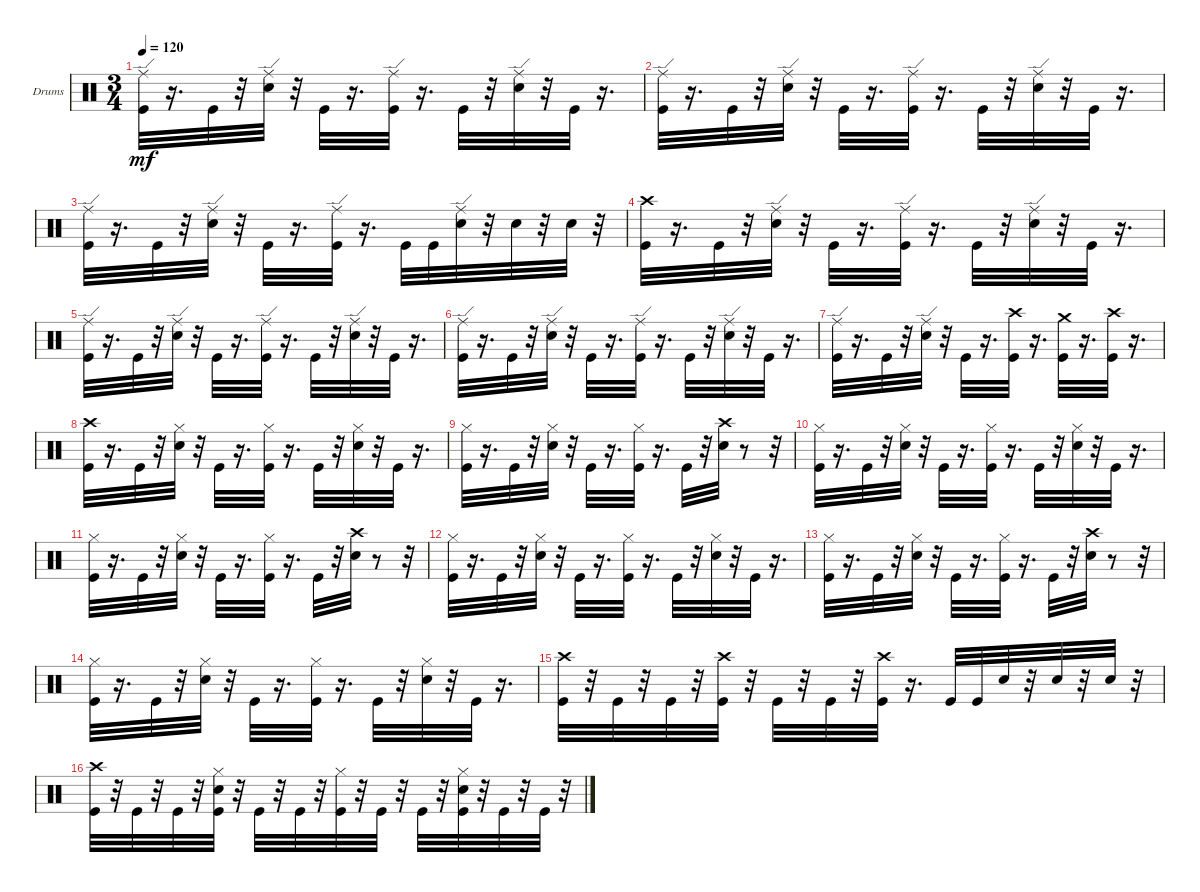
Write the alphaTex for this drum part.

\bracketExtendMode groupsimilarinstruments
\firstSystemTrackNameOrientation horizontal
\otherSystemsTrackNameOrientation horizontal
\track ("" "Drums") {instrument percussion}
\staff {score}
\articulation defaults
\ts (3 4)
\tempo 120
\clef neutral
\ks c
("Ride (edge)" "Kick (hit)").32{dy mf} r.16{d} "Kick (hit)".32 r.32 ("Snare (hit) 2" "Ride (edge)").32 r.32 "Kick (hit)".32 r.16{d} ("Kick (hit)" "Ride (edge)").32 r.16{d} "Kick (hit)".32 r.32 ("Snare (hit) 2" "Ride (edge)").32 r.32 "Kick (hit)".32 r.16{d} |
("Ride (edge)" "Kick (hit)").32 r.16{d} "Kick (hit)".32 r.32 ("Snare (hit) 2" "Ride (edge)").32 r.32 "Kick (hit)".32 r.16{d} ("Kick (hit)" "Ride (edge)").32 r.16{d} "Kick (hit)".32 r.32 ("Snare (hit) 2" "Ride (edge)").32 r.32 "Kick (hit)".32 r.16{d} |
("Ride (edge)" "Kick (hit)").32 r.16{d} "Kick (hit)".32 r.32 ("Snare (hit) 2" "Ride (edge)").32 r.32 "Kick (hit)".32 r.16{d} ("Kick (hit)" "Ride (edge)").32 r.16{d} "Kick (hit)".32 "Kick (hit)".32 ("Snare (hit) 2" "Ride (edge)").32 r.32 "Snare (hit) 2".32 r.32 "Snare (hit) 2".32 r.32 |
("Crash high (hit)" "Kick (hit)").32 r.16{d} "Kick (hit)".32 r.32 ("Snare (hit) 2" "Ride (edge)").32 r.32 "Kick (hit)".32 r.16{d} ("Kick (hit)" "Ride (edge)").32 r.16{d} "Kick (hit)".32 r.32 ("Snare (hit) 2" "Ride (edge)").32 r.32 "Kick (hit)".32 r.16{d} |
("Ride (edge)" "Kick (hit)").32 r.16{d} "Kick (hit)".32 r.32 ("Snare (hit) 2" "Ride (edge)").32 r.32 "Kick (hit)".32 r.16{d} ("Kick (hit)" "Ride (edge)").32 r.16{d} "Kick (hit)".32 r.32 ("Snare (hit) 2" "Ride (edge)").32 r.32 "Kick (hit)".32 r.16{d} |
("Ride (edge)" "Kick (hit)").32 r.16{d} "Kick (hit)".32 r.32 ("Snare (hit) 2" "Ride (edge)").32 r.32 "Kick (hit)".32 r.16{d} ("Kick (hit)" "Ride (edge)").32 r.16{d} "Kick (hit)".32 r.32 ("Snare (hit) 2" "Ride (edge)").32 r.32 "Kick (hit)".32 r.16{d} |
("Ride (edge)" "Kick (hit)").32 r.16{d} "Kick (hit)".32 r.32 ("Snare (hit) 2" "Ride (edge)").32 r.32 "Kick (hit)".32 r.16{d} ("Crash high (hit)" "Kick (hit)").32 r.16{d} ("Crash medium (hit)" "Kick (hit)").32 r.16{d} ("Crash high (hit)" "Kick (hit)").32 r.16{d} |
("Crash high (hit)" "Kick (hit)").32 r.16{d} "Kick (hit)".32 r.32 ("Snare (hit) 2" "Hi-Hat (closed)").32 r.32 "Kick (hit)".32 r.16{d} ("Hi-Hat (closed)" "Kick (hit)").32 r.16{d} "Kick (hit)".32 r.32 ("Hi-Hat (closed)" "Snare (hit) 2").32 r.32 "Kick (hit)".32 r.16{d} |
("Hi-Hat (closed)" "Kick (hit)").32 r.16{d} "Kick (hit)".32 r.32 ("Snare (hit) 2" "Hi-Hat (closed)").32 r.32 "Kick (hit)".32 r.16{d} ("Hi-Hat (closed)" "Kick (hit)").32 r.16{d} "Kick (hit)".32 r.32 ("Crash high (hit)" "Snare (hit) 2").32 r.8 r.32 |
("Hi-Hat (closed)" "Kick (hit)").32 r.16{d} "Kick (hit)".32 r.32 ("Snare (hit) 2" "Hi-Hat (closed)").32 r.32 "Kick (hit)".32 r.16{d} ("Hi-Hat (closed)" "Kick (hit)").32 r.16{d} "Kick (hit)".32 r.32 ("Hi-Hat (closed)" "Snare (hit) 2").32 r.32 "Kick (hit)".32 r.16{d} |
("Hi-Hat (closed)" "Kick (hit)").32 r.16{d} "Kick (hit)".32 r.32 ("Snare (hit) 2" "Hi-Hat (closed)").32 r.32 "Kick (hit)".32 r.16{d} ("Hi-Hat (closed)" "Kick (hit)").32 r.16{d} "Kick (hit)".32 r.32 ("Crash high (hit)" "Snare (hit) 2").32 r.8 r.32 |
("Hi-Hat (closed)" "Kick (hit)").32 r.16{d} "Kick (hit)".32 r.32 ("Snare (hit) 2" "Hi-Hat (closed)").32 r.32 "Kick (hit)".32 r.16{d} ("Hi-Hat (closed)" "Kick (hit)").32 r.16{d} "Kick (hit)".32 r.32 ("Hi-Hat (closed)" "Snare (hit) 2").32 r.32 "Kick (hit)".32 r.16{d} |
("Hi-Hat (closed)" "Kick (hit)").32 r.16{d} "Kick (hit)".32 r.32 ("Snare (hit) 2" "Hi-Hat (closed)").32 r.32 "Kick (hit)".32 r.16{d} ("Hi-Hat (closed)" "Kick (hit)").32 r.16{d} "Kick (hit)".32 r.32 ("Crash high (hit)" "Snare (hit) 2").32 r.8 r.32 |
("Hi-Hat (closed)" "Kick (hit)").32 r.16{d} "Kick (hit)".32 r.32 ("Snare (hit) 2" "Hi-Hat (closed)").32 r.32 "Kick (hit)".32 r.16{d} ("Hi-Hat (closed)" "Kick (hit)").32 r.16{d} "Kick (hit)".32 r.32 ("Hi-Hat (closed)" "Snare (hit) 2").32 r.32 "Kick (hit)".32 r.16{d} |
("Crash high (hit)" "Kick (hit)").32 r.32 "Kick (hit)".32 r.32 "Kick (hit)".32 r.32 ("Crash high (hit)" "Kick (hit)").32 r.32 "Kick (hit)".32 r.32 "Kick (hit)".32 r.32 ("Kick (hit)" "Crash high (hit)").32 r.16{d} "Kick (hit)".32 "Kick (hit)".32 "Snare (hit) 2".32 r.32 "Snare (hit) 2".32 r.32 "Snare (hit) 2".32 r.32 |
("Crash high (hit)" "Kick (hit)").32 r.32 "Kick (hit)".32 r.32 "Kick (hit)".32 r.32 ("Hi-Hat (closed)" "Snare (hit) 2" "Kick (hit)").32 r.32 "Kick (hit)".32 r.32 "Kick (hit)".32 r.32 ("Hi-Hat (closed)" "Kick (hit)").32 r.32 "Kick (hit)".32 r.32 "Kick (hit)".32 r.32 ("Hi-Hat (closed)" "Snare (hit) 2" "Kick (hit)").32 r.32 "Kick (hit)".32 r.32 "Kick (hit)".32 r.32
